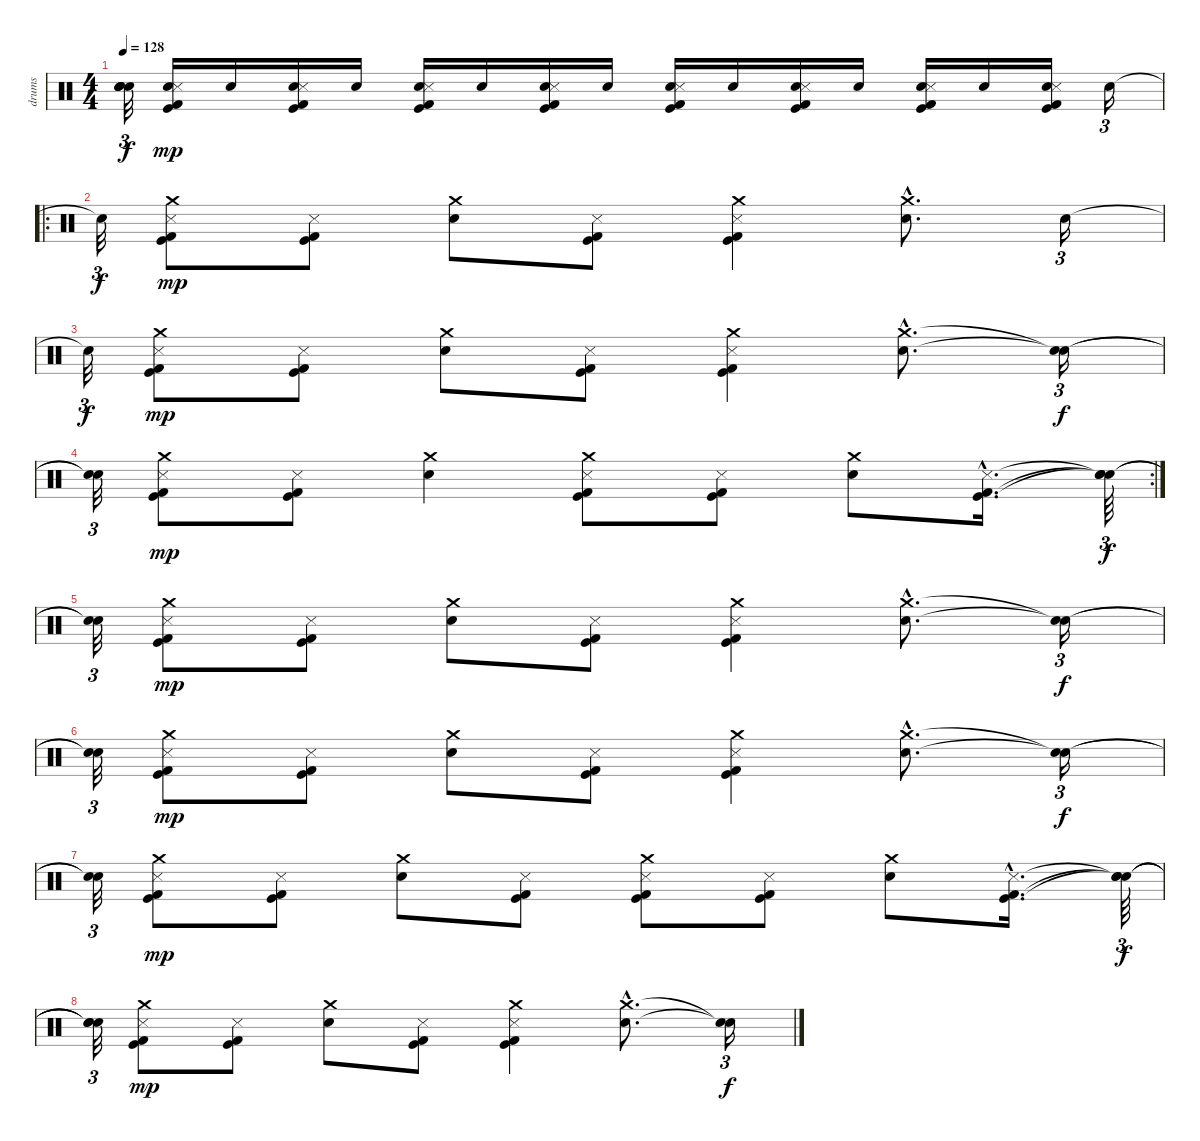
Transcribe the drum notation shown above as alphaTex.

\track ("drums" "drums") {instrument percussion}
\staff {score}
\articulation defaults
\ts (4 4)
\tempo 128
\clef neutral
\ks c
("Snare (hit)"{t} "Snare (hit)"{t} "Snare (hit)"{t} "Snare (hit)"{t}).32{tu (3 2) dy f} ("Snare (hit) 2" "Metronome (hit)" "Kick (hit)" "Kick (hit) 2").16{dy mp} "Snare (hit) 2".16 ("Snare (hit) 2" "Metronome (hit)" "Kick (hit)" "Kick (hit) 2").16 "Snare (hit) 2".16 ("Snare (hit) 2" "Metronome (hit)" "Kick (hit)" "Kick (hit) 2").16 "Snare (hit) 2".16 ("Snare (hit) 2" "Metronome (hit)" "Kick (hit)" "Kick (hit) 2").16 "Snare (hit) 2".16 ("Snare (hit) 2" "Metronome (hit)" "Kick (hit)" "Kick (hit) 2").16 "Snare (hit) 2".16 ("Snare (hit) 2" "Metronome (hit)" "Kick (hit)" "Kick (hit) 2").16 "Snare (hit) 2".16 ("Snare (hit) 2" "Metronome (hit)" "Kick (hit)" "Kick (hit) 2").16 "Snare (hit) 2".16 ("Snare (hit) 2" "Metronome (hit)" "Kick (hit)" "Kick (hit) 2").16 "Snare (hit) 2".16{tu (3 2)} |
\ro "Snare (hit)"{t}.32{tu (3 2) dy f}
("Crash medium (hit)" "Metronome (hit)" "Kick (hit)" "Kick (hit) 2").8{dy mp} ("Metronome (hit)" "Kick (hit)" "Kick (hit) 2").8 ("Snare (hit) 2" "Crash medium (hit)").8 ("Metronome (hit)" "Kick (hit)" "Kick (hit) 2").8 ("Crash medium (hit)" "Metronome (hit)" "Kick (hit)" "Kick (hit) 2").4 ("Snare (hit) 2"{hac} "Crash medium (hit)"{hac}).8{d} "Snare (hit) 2".16{tu (3 2)} |
"Snare (hit)"{t}.32{tu (3 2) dy f} ("Crash medium (hit)" "Metronome (hit)" "Kick (hit)" "Kick (hit) 2").8{dy mp} ("Metronome (hit)" "Kick (hit)" "Kick (hit) 2").8 ("Snare (hit) 2" "Crash medium (hit)").8 ("Metronome (hit)" "Kick (hit)" "Kick (hit) 2").8 ("Crash medium (hit)" "Metronome (hit)" "Kick (hit)" "Kick (hit) 2").4 ("Snare (hit) 2"{hac} "Crash medium (hit)"{hac}).8{d} ("Snare (hit)"{t} "Snare (hit)"{t}).16{tu (3 2) dy f} |
\rc 2
("Snare (hit)"{t} "Snare (hit)"{t}).32{tu (3 2)} ("Crash medium (hit)" "Metronome (hit)" "Kick (hit)" "Kick (hit) 2").8{dy mp} ("Metronome (hit)" "Kick (hit)" "Kick (hit) 2").8 ("Snare (hit) 2" "Crash medium (hit)").4 ("Crash medium (hit)" "Metronome (hit)" "Kick (hit)" "Kick (hit) 2").8 ("Metronome (hit)" "Kick (hit)" "Kick (hit) 2").8 ("Snare (hit) 2" "Crash medium (hit)").8 ("Metronome (hit)"{hac} "Kick (hit)"{hac} "Kick (hit) 2"{hac}).16{d} ("Snare (hit)"{t} "Snare (hit)"{t} "Snare (hit)"{t}).64{tu (3 2) dy f} |
("Snare (hit)"{t} "Snare (hit)"{t}).32{tu (3 2)} ("Crash medium (hit)" "Metronome (hit)" "Kick (hit)" "Kick (hit) 2").8{dy mp} ("Metronome (hit)" "Kick (hit)" "Kick (hit) 2").8 ("Snare (hit) 2" "Crash medium (hit)").8 ("Metronome (hit)" "Kick (hit)" "Kick (hit) 2").8 ("Crash medium (hit)" "Metronome (hit)" "Kick (hit)" "Kick (hit) 2").4 ("Snare (hit) 2"{hac} "Crash medium (hit)"{hac}).8{d} ("Snare (hit)"{t} "Snare (hit)"{t}).16{tu (3 2) dy f} |
("Snare (hit)"{t} "Snare (hit)"{t}).32{tu (3 2)} ("Crash medium (hit)" "Metronome (hit)" "Kick (hit)" "Kick (hit) 2").8{dy mp} ("Metronome (hit)" "Kick (hit)" "Kick (hit) 2").8 ("Snare (hit) 2" "Crash medium (hit)").8 ("Metronome (hit)" "Kick (hit)" "Kick (hit) 2").8 ("Crash medium (hit)" "Metronome (hit)" "Kick (hit)" "Kick (hit) 2").4 ("Snare (hit) 2"{hac} "Crash medium (hit)"{hac}).8{d} ("Snare (hit)"{t} "Snare (hit)"{t}).16{tu (3 2) dy f} |
("Snare (hit)"{t} "Snare (hit)"{t}).32{tu (3 2)} ("Crash medium (hit)" "Metronome (hit)" "Kick (hit)" "Kick (hit) 2").8{dy mp} ("Metronome (hit)" "Kick (hit)" "Kick (hit) 2").8 ("Snare (hit) 2" "Crash medium (hit)").8 ("Metronome (hit)" "Kick (hit)" "Kick (hit) 2").8 ("Crash medium (hit)" "Metronome (hit)" "Kick (hit)" "Kick (hit) 2").8 ("Metronome (hit)" "Kick (hit)" "Kick (hit) 2").8 ("Snare (hit) 2" "Crash medium (hit)").8 ("Metronome (hit)"{hac} "Kick (hit)"{hac} "Kick (hit) 2"{hac}).16{d} ("Snare (hit)"{t} "Snare (hit)"{t} "Snare (hit)"{t}).64{tu (3 2) dy f} |
("Snare (hit)"{t} "Snare (hit)"{t} "Snare (hit)"{t}).32{tu (3 2)} ("Crash medium (hit)" "Metronome (hit)" "Kick (hit)" "Kick (hit) 2").8{dy mp} ("Metronome (hit)" "Kick (hit)" "Kick (hit) 2").8 ("Snare (hit) 2" "Crash medium (hit)").8 ("Metronome (hit)" "Kick (hit)" "Kick (hit) 2").8 ("Crash medium (hit)" "Metronome (hit)" "Kick (hit)" "Kick (hit) 2").4 ("Snare (hit) 2"{hac} "Crash medium (hit)"{hac}).8{d} ("Snare (hit)"{t} "Snare (hit)"{t}).16{tu (3 2) dy f}
